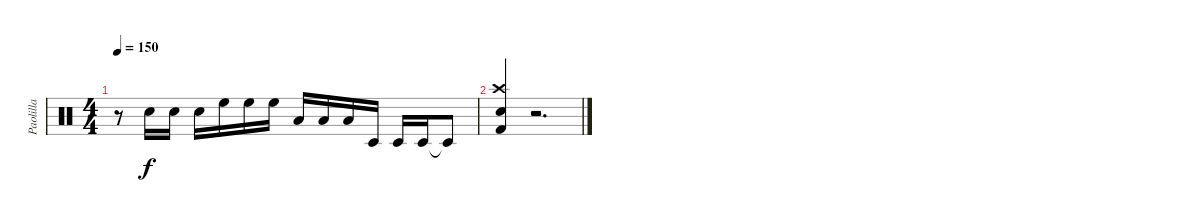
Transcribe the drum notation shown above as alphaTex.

\track ("Paolilla" "Paolilla") {instrument percussion}
\staff {score}
\articulation defaults
\ts (4 4)
\tempo 150
\clef neutral
\ks c
r.8{dy f} "Snare (hit) 2".16 "Snare (hit) 2".16 "Snare (hit) 2".16 "High Floor Tom (hit)".16 "High Floor Tom (hit)".16 "High Floor Tom (hit)".16 "Low Tom (hit)".16 "Low Tom (hit)".16 "Low Tom (hit)".16 "Timbale low (hit)".16 "Timbale low (hit)".16 "Timbale low (hit)".16 "Timbale low (hit)"{t}.8 |
("Snare (hit) 2" "Crash high (hit)" "Kick (hit) 2").4 r.2{d}
